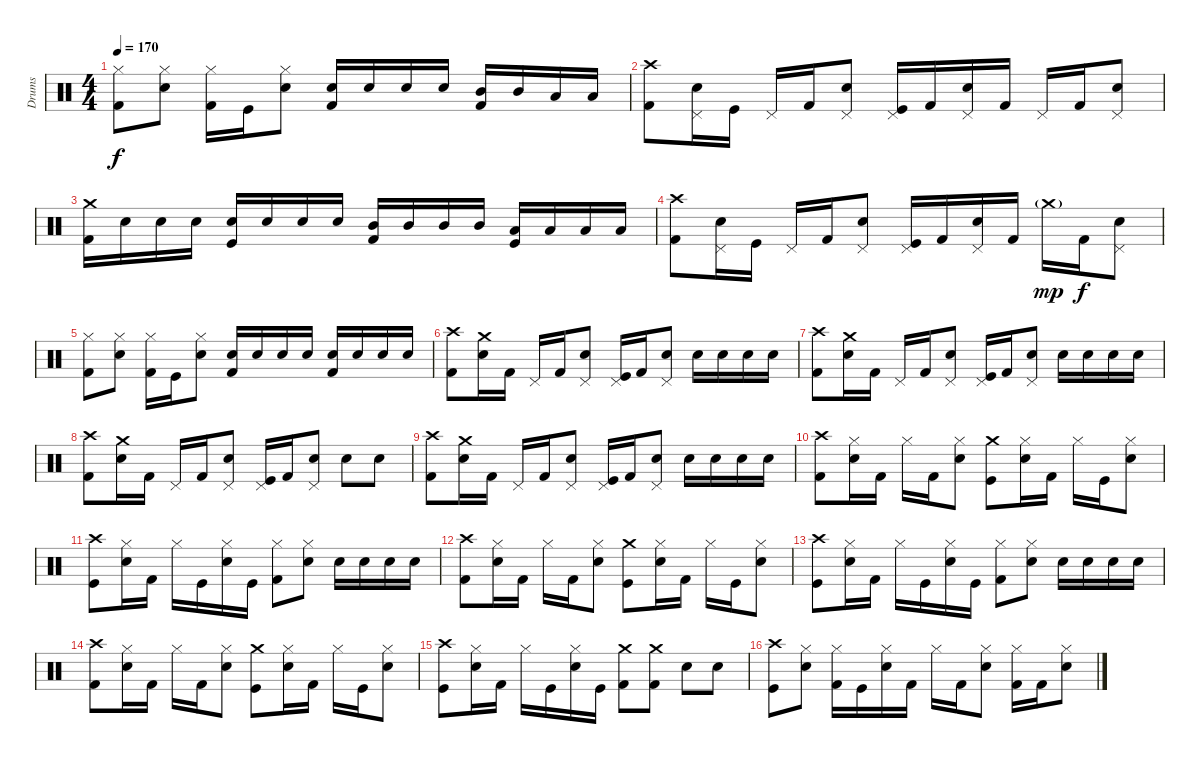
\track ("Drums" "Drums") {instrument percussion}
\staff {score}
\articulation defaults
\ts (4 4)
\tempo 170
\clef neutral
\ks c
("Hi-Hat (closed)" "Kick (hit) 2").8{dy f} ("Hi-Hat (closed)" "Electric Snare (hit)").8 ("Hi-Hat (closed)" "Kick (hit) 2").16 "Kick (hit)".16 ("Hi-Hat (closed)" "Electric Snare (hit)").8 ("Electric Snare (hit)" "Kick (hit) 2").16 "Electric Snare (hit)".16 "Electric Snare (hit)".16 "Electric Snare (hit)".16 ("Mid Tom (hit)" "Kick (hit) 2").16 "Mid Tom (hit)".16 "Low Tom (hit)".16 "Low Tom (hit)".16 |
("Crash high (hit)" "Kick (hit) 2").8 ("Pedal Hi-Hat (hit)" "Electric Snare (hit)").16 "Kick (hit)".16 "Pedal Hi-Hat (hit)".16 "Kick (hit) 2".16 ("Pedal Hi-Hat (hit)" "Electric Snare (hit)").8 ("Pedal Hi-Hat (hit)" "Kick (hit)").16 "Kick (hit) 2".16 ("Pedal Hi-Hat (hit)" "Electric Snare (hit)").16 "Kick (hit) 2".16 "Pedal Hi-Hat (hit)".16 "Kick (hit) 2".16 ("Pedal Hi-Hat (hit)" "Electric Snare (hit)").8 |
("Crash medium (hit)" "Kick (hit) 2").16 "Electric Snare (hit)".16 "Electric Snare (hit)".16 "Electric Snare (hit)".16 ("Electric Snare (hit)" "Kick (hit)").16 "Electric Snare (hit)".16 "Electric Snare (hit)".16 "Electric Snare (hit)".16 ("Mid Tom (hit)" "Kick (hit) 2").16 "Mid Tom (hit)".16 "Mid Tom (hit)".16 "Mid Tom (hit)".16 ("Low Tom (hit)" "Kick (hit)").16 "Low Tom (hit)".16 "Low Tom (hit)".16 "Low Tom (hit)".16 |
("Crash high (hit)" "Kick (hit) 2").8 ("Pedal Hi-Hat (hit)" "Electric Snare (hit)").16 "Kick (hit)".16 "Pedal Hi-Hat (hit)".16 "Kick (hit) 2".16 ("Pedal Hi-Hat (hit)" "Electric Snare (hit)").8 ("Pedal Hi-Hat (hit)" "Kick (hit)").16 "Kick (hit) 2".16 ("Pedal Hi-Hat (hit)" "Electric Snare (hit)").16 "Kick (hit) 2".16 "Crash medium (hit)"{g}.16{dy mp} "Kick (hit) 2".16{dy f} ("Pedal Hi-Hat (hit)" "Electric Snare (hit)").8 |
("Hi-Hat (closed)" "Kick (hit) 2").8 ("Hi-Hat (closed)" "Electric Snare (hit)").8 ("Hi-Hat (closed)" "Kick (hit) 2").16 "Kick (hit)".16 ("Hi-Hat (closed)" "Electric Snare (hit)").8 ("Electric Snare (hit)" "Kick (hit) 2").16 "Electric Snare (hit)".16 "Electric Snare (hit)".16 "Electric Snare (hit)".16 ("Electric Snare (hit)" "Kick (hit) 2").16 "Electric Snare (hit)".16 "Electric Snare (hit)".16 "Electric Snare (hit)".16 |
("Crash high (hit)" "Kick (hit) 2").8 ("Crash medium (hit)" "Electric Snare (hit)").16 "Kick (hit) 2".16 "Pedal Hi-Hat (hit)".16 "Kick (hit) 2".16 ("Pedal Hi-Hat (hit)" "Electric Snare (hit)").8 ("Pedal Hi-Hat (hit)" "Kick (hit)").16 "Kick (hit) 2".16 ("Pedal Hi-Hat (hit)" "Electric Snare (hit)").8 "Electric Snare (hit)".16 "Electric Snare (hit)".16 "Electric Snare (hit)".16 "Electric Snare (hit)".16 |
("Crash high (hit)" "Kick (hit) 2").8 ("Crash medium (hit)" "Electric Snare (hit)").16 "Kick (hit) 2".16 "Pedal Hi-Hat (hit)".16 "Kick (hit) 2".16 ("Pedal Hi-Hat (hit)" "Electric Snare (hit)").8 ("Pedal Hi-Hat (hit)" "Kick (hit)").16 "Kick (hit) 2".16 ("Pedal Hi-Hat (hit)" "Electric Snare (hit)").8 "Electric Snare (hit)".16 "Electric Snare (hit)".16 "Electric Snare (hit)".16 "Electric Snare (hit)".16 |
("Crash high (hit)" "Kick (hit) 2").8 ("Crash medium (hit)" "Electric Snare (hit)").16 "Kick (hit) 2".16 "Pedal Hi-Hat (hit)".16 "Kick (hit) 2".16 ("Pedal Hi-Hat (hit)" "Electric Snare (hit)").8 ("Pedal Hi-Hat (hit)" "Kick (hit)").16 "Kick (hit) 2".16 ("Pedal Hi-Hat (hit)" "Electric Snare (hit)").8 "Electric Snare (hit)".8 "Electric Snare (hit)".8 |
("Crash high (hit)" "Kick (hit) 2").8 ("Crash medium (hit)" "Electric Snare (hit)").16 "Kick (hit) 2".16 "Pedal Hi-Hat (hit)".16 "Kick (hit) 2".16 ("Pedal Hi-Hat (hit)" "Electric Snare (hit)").8 ("Pedal Hi-Hat (hit)" "Kick (hit)").16 "Kick (hit) 2".16 ("Pedal Hi-Hat (hit)" "Electric Snare (hit)").8 "Electric Snare (hit)".16 "Electric Snare (hit)".16 "Electric Snare (hit)".16 "Electric Snare (hit)".16 |
("Crash high (hit)" "Kick (hit) 2").8 ("Hi-Hat (closed)" "Electric Snare (hit)").16 "Kick (hit) 2".16 "Hi-Hat (closed)".16 "Kick (hit) 2".16 ("Hi-Hat (closed)" "Electric Snare (hit)").8 ("Crash medium (hit)" "Kick (hit)").8 ("Hi-Hat (closed)" "Electric Snare (hit)").16 "Kick (hit) 2".16 "Hi-Hat (closed)".16 "Kick (hit)".16 ("Hi-Hat (closed)" "Electric Snare (hit)").8 |
("Crash high (hit)" "Kick (hit)").8 ("Hi-Hat (closed)" "Electric Snare (hit)").16 "Kick (hit) 2".16 "Hi-Hat (closed)".16 "Kick (hit)".16 ("Hi-Hat (closed)" "Electric Snare (hit)").16 "Kick (hit)".16 ("Hi-Hat (closed)" "Kick (hit) 2").8 ("Hi-Hat (closed)" "Electric Snare (hit)").8 "Electric Snare (hit)".16 "Electric Snare (hit)".16 "Electric Snare (hit)".16 "Electric Snare (hit)".16 |
("Crash high (hit)" "Kick (hit) 2").8 ("Hi-Hat (closed)" "Electric Snare (hit)").16 "Kick (hit) 2".16 "Hi-Hat (closed)".16 "Kick (hit) 2".16 ("Hi-Hat (closed)" "Electric Snare (hit)").8 ("Crash medium (hit)" "Kick (hit)").8 ("Hi-Hat (closed)" "Electric Snare (hit)").16 "Kick (hit) 2".16 "Hi-Hat (closed)".16 "Kick (hit)".16 ("Hi-Hat (closed)" "Electric Snare (hit)").8 |
("Crash high (hit)" "Kick (hit)").8 ("Hi-Hat (closed)" "Electric Snare (hit)").16 "Kick (hit) 2".16 "Hi-Hat (closed)".16 "Kick (hit)".16 ("Hi-Hat (closed)" "Electric Snare (hit)").16 "Kick (hit)".16 ("Hi-Hat (closed)" "Kick (hit) 2").8 ("Hi-Hat (closed)" "Electric Snare (hit)").8 "Electric Snare (hit)".16 "Electric Snare (hit)".16 "Electric Snare (hit)".16 "Electric Snare (hit)".16 |
("Crash high (hit)" "Kick (hit) 2").8 ("Hi-Hat (closed)" "Electric Snare (hit)").16 "Kick (hit) 2".16 "Hi-Hat (closed)".16 "Kick (hit) 2".16 ("Hi-Hat (closed)" "Electric Snare (hit)").8 ("Crash medium (hit)" "Kick (hit)").8 ("Hi-Hat (closed)" "Electric Snare (hit)").16 "Kick (hit) 2".16 "Hi-Hat (closed)".16 "Kick (hit)".16 ("Hi-Hat (closed)" "Electric Snare (hit)").8 |
("Crash high (hit)" "Kick (hit)").8 ("Hi-Hat (closed)" "Electric Snare (hit)").16 "Kick (hit) 2".16 "Hi-Hat (closed)".16 "Kick (hit)".16 ("Hi-Hat (closed)" "Electric Snare (hit)").16 "Kick (hit)".16 ("Crash medium (hit)" "Kick (hit) 2").8 ("Crash medium (hit)" "Kick (hit) 2").8 "Electric Snare (hit)".8 "Electric Snare (hit)".8 |
("Crash high (hit)" "Kick (hit)").8 ("Hi-Hat (closed)" "Electric Snare (hit)").8 ("Hi-Hat (closed)" "Kick (hit) 2").16 "Kick (hit)".16 ("Hi-Hat (closed)" "Electric Snare (hit)").16 "Kick (hit) 2".16 "Hi-Hat (closed)".16 "Kick (hit) 2".16 ("Hi-Hat (closed)" "Electric Snare (hit)").8 ("Hi-Hat (closed)" "Kick (hit) 2").16 "Kick (hit) 2".16 ("Hi-Hat (closed)" "Electric Snare (hit)").8
